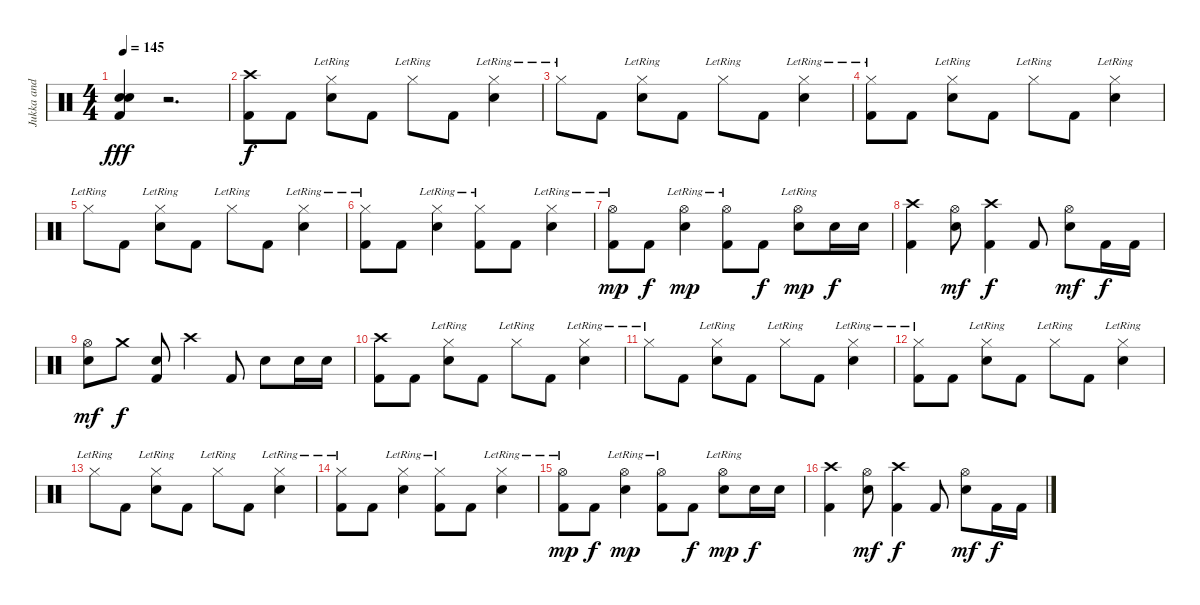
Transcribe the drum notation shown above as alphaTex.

\track ("Jukka and his drums" "Jukka and ") {instrument percussion}
\staff {score}
\articulation defaults
\ts (4 4)
\tempo 145
\clef neutral
\ks c
("Kick (hit) 2" "Snare (hit) 2" "Snare (hit) 2").4{dy fff} r.2{d} |
("Kick (hit) 2" "Crash high (hit)").8{dy f} "Kick (hit) 2".8 ("Hi-Hat (closed)"{lr} "Snare (hit) 2").8 "Kick (hit) 2".8 "Hi-Hat (closed)"{lr}.8 "Kick (hit) 2".8 ("Hi-Hat (closed)"{lr} "Snare (hit) 2").4 |
"Hi-Hat (closed)"{lr}.8 "Kick (hit) 2".8 ("Hi-Hat (closed)"{lr} "Snare (hit) 2").8 "Kick (hit) 2".8 "Hi-Hat (closed)"{lr}.8 "Kick (hit) 2".8 ("Hi-Hat (closed)"{lr} "Snare (hit) 2").4 |
("Kick (hit) 2" "Hi-Hat (closed)"{lr}).8 "Kick (hit) 2".8 ("Hi-Hat (closed)"{lr} "Snare (hit) 2").8 "Kick (hit) 2".8 "Hi-Hat (closed)"{lr}.8 "Kick (hit) 2".8 ("Hi-Hat (closed)"{lr} "Snare (hit) 2").4 |
"Hi-Hat (closed)"{lr}.8 "Kick (hit) 2".8 ("Hi-Hat (closed)"{lr} "Snare (hit) 2").8 "Kick (hit) 2".8 "Hi-Hat (closed)"{lr}.8 "Kick (hit) 2".8 ("Hi-Hat (closed)"{lr} "Snare (hit) 2").4 |
("Kick (hit) 2" "Hi-Hat (closed)"{lr}).8 "Kick (hit) 2".8 ("Hi-Hat (closed)"{lr} "Snare (hit) 2").4 ("Kick (hit) 2" "Hi-Hat (closed)"{lr}).8 "Kick (hit) 2".8 ("Hi-Hat (closed)"{lr} "Snare (hit) 2").4 |
("Kick (hit) 2" "Hi-Hat (open)"{lr}).8{dy mp} "Kick (hit) 2".8{dy f} ("Hi-Hat (open)"{lr} "Snare (hit) 2").4{dy mp} ("Kick (hit) 2" "Hi-Hat (open)"{lr}).8 "Kick (hit) 2".8{dy f} ("Hi-Hat (open)"{lr} "Snare (hit) 2").8{dy mp} "Snare (hit) 2".16{dy f} "Snare (hit) 2".16 |
("Kick (hit) 2" "Crash high (hit)").4 ("Hi-Hat (open)" "Snare (hit) 2").8{dy mf} ("Kick (hit) 2" "Crash high (hit)").4{dy f} "Kick (hit) 2".8 ("Hi-Hat (open)" "Snare (hit) 2").8{dy mf} "Kick (hit) 2".16{dy f} "Kick (hit) 2".16 |
("Hi-Hat (open)" "Snare (hit) 2").8{dy mf} "Crash medium (hit)".8{dy f} ("Kick (hit) 2" "Snare (hit) 2").8 "Crash high (hit)".4 "Kick (hit) 2".8 "Snare (hit) 2".8 "Snare (hit) 2".16 "Snare (hit) 2".16 |
("Kick (hit) 2" "Crash high (hit)").8 "Kick (hit) 2".8 ("Hi-Hat (closed)"{lr} "Snare (hit) 2").8 "Kick (hit) 2".8 "Hi-Hat (closed)"{lr}.8 "Kick (hit) 2".8 ("Hi-Hat (closed)"{lr} "Snare (hit) 2").4 |
"Hi-Hat (closed)"{lr}.8 "Kick (hit) 2".8 ("Hi-Hat (closed)"{lr} "Snare (hit) 2").8 "Kick (hit) 2".8 "Hi-Hat (closed)"{lr}.8 "Kick (hit) 2".8 ("Hi-Hat (closed)"{lr} "Snare (hit) 2").4 |
("Kick (hit) 2" "Hi-Hat (closed)"{lr}).8 "Kick (hit) 2".8 ("Hi-Hat (closed)"{lr} "Snare (hit) 2").8 "Kick (hit) 2".8 "Hi-Hat (closed)"{lr}.8 "Kick (hit) 2".8 ("Hi-Hat (closed)"{lr} "Snare (hit) 2").4 |
"Hi-Hat (closed)"{lr}.8 "Kick (hit) 2".8 ("Hi-Hat (closed)"{lr} "Snare (hit) 2").8 "Kick (hit) 2".8 "Hi-Hat (closed)"{lr}.8 "Kick (hit) 2".8 ("Hi-Hat (closed)"{lr} "Snare (hit) 2").4 |
("Kick (hit) 2" "Hi-Hat (closed)"{lr}).8 "Kick (hit) 2".8 ("Hi-Hat (closed)"{lr} "Snare (hit) 2").4 ("Kick (hit) 2" "Hi-Hat (closed)"{lr}).8 "Kick (hit) 2".8 ("Hi-Hat (closed)"{lr} "Snare (hit) 2").4 |
("Kick (hit) 2" "Hi-Hat (open)"{lr}).8{dy mp} "Kick (hit) 2".8{dy f} ("Hi-Hat (open)"{lr} "Snare (hit) 2").4{dy mp} ("Kick (hit) 2" "Hi-Hat (open)"{lr}).8 "Kick (hit) 2".8{dy f} ("Hi-Hat (open)"{lr} "Snare (hit) 2").8{dy mp} "Snare (hit) 2".16{dy f} "Snare (hit) 2".16 |
("Kick (hit) 2" "Crash high (hit)").4 ("Hi-Hat (open)" "Snare (hit) 2").8{dy mf} ("Kick (hit) 2" "Crash high (hit)").4{dy f} "Kick (hit) 2".8 ("Hi-Hat (open)" "Snare (hit) 2").8{dy mf} "Kick (hit) 2".16{dy f} "Kick (hit) 2".16
